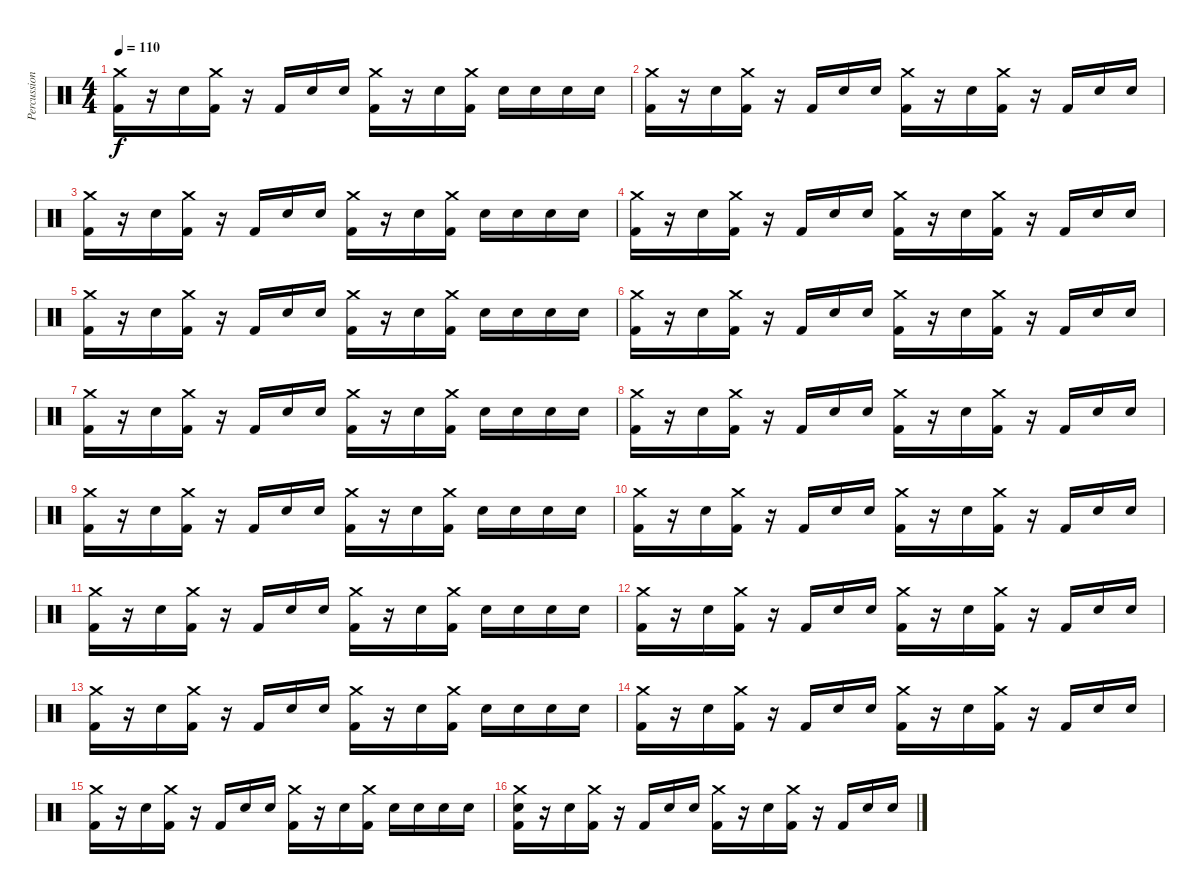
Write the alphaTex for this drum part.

\track ("Percussion" "Percussion") {instrument percussion}
\staff {score}
\articulation defaults
\ts (4 4)
\tempo 110
\clef neutral
\ks c
("Crash medium (hit)" "Kick (hit) 2").16{dy f} r.16 "Snare (hit) 2".16 ("Crash medium (hit)" "Kick (hit) 2").16 r.16 "Kick (hit) 2".16 "Snare (hit) 2".16 "Electric Snare (hit)".16 ("Crash medium (hit)" "Kick (hit) 2").16 r.16 "Snare (hit) 2".16 ("Crash medium (hit)" "Kick (hit) 2").16 "Snare (hit) 2".16 "Snare (hit) 2".16 "Snare (hit) 2".16 "Electric Snare (hit)".16 |
("Crash medium (hit)" "Kick (hit) 2").16 r.16 "Snare (hit) 2".16 ("Crash medium (hit)" "Kick (hit) 2").16 r.16 "Kick (hit) 2".16 "Snare (hit) 2".16 "Electric Snare (hit)".16 ("Crash medium (hit)" "Kick (hit) 2").16 r.16 "Snare (hit) 2".16 ("Crash medium (hit)" "Kick (hit) 2").16 r.16 "Kick (hit) 2".16 "Snare (hit) 2".16 "Electric Snare (hit)".16 |
("Crash medium (hit)" "Kick (hit) 2").16 r.16 "Snare (hit) 2".16 ("Crash medium (hit)" "Kick (hit) 2").16 r.16 "Kick (hit) 2".16 "Snare (hit) 2".16 "Electric Snare (hit)".16 ("Crash medium (hit)" "Kick (hit) 2").16 r.16 "Snare (hit) 2".16 ("Crash medium (hit)" "Kick (hit) 2").16 "Snare (hit) 2".16 "Snare (hit) 2".16 "Snare (hit) 2".16 "Electric Snare (hit)".16 |
("Crash medium (hit)" "Kick (hit) 2").16 r.16 "Snare (hit) 2".16 ("Crash medium (hit)" "Kick (hit) 2").16 r.16 "Kick (hit) 2".16 "Snare (hit) 2".16 "Electric Snare (hit)".16 ("Crash medium (hit)" "Kick (hit) 2").16 r.16 "Snare (hit) 2".16 ("Crash medium (hit)" "Kick (hit) 2").16 r.16 "Kick (hit) 2".16 "Snare (hit) 2".16 "Electric Snare (hit)".16 |
("Crash medium (hit)" "Kick (hit) 2").16 r.16 "Snare (hit) 2".16 ("Crash medium (hit)" "Kick (hit) 2").16 r.16 "Kick (hit) 2".16 "Snare (hit) 2".16 "Electric Snare (hit)".16 ("Crash medium (hit)" "Kick (hit) 2").16 r.16 "Snare (hit) 2".16 ("Crash medium (hit)" "Kick (hit) 2").16 "Snare (hit) 2".16 "Snare (hit) 2".16 "Snare (hit) 2".16 "Electric Snare (hit)".16 |
("Crash medium (hit)" "Kick (hit) 2").16 r.16 "Snare (hit) 2".16 ("Crash medium (hit)" "Kick (hit) 2").16 r.16 "Kick (hit) 2".16 "Snare (hit) 2".16 "Electric Snare (hit)".16 ("Crash medium (hit)" "Kick (hit) 2").16 r.16 "Snare (hit) 2".16 ("Crash medium (hit)" "Kick (hit) 2").16 r.16 "Kick (hit) 2".16 "Snare (hit) 2".16 "Electric Snare (hit)".16 |
("Crash medium (hit)" "Kick (hit) 2").16 r.16 "Snare (hit) 2".16 ("Crash medium (hit)" "Kick (hit) 2").16 r.16 "Kick (hit) 2".16 "Snare (hit) 2".16 "Electric Snare (hit)".16 ("Crash medium (hit)" "Kick (hit) 2").16 r.16 "Snare (hit) 2".16 ("Crash medium (hit)" "Kick (hit) 2").16 "Snare (hit) 2".16 "Snare (hit) 2".16 "Snare (hit) 2".16 "Electric Snare (hit)".16 |
("Crash medium (hit)" "Kick (hit) 2").16 r.16 "Snare (hit) 2".16 ("Crash medium (hit)" "Kick (hit) 2").16 r.16 "Kick (hit) 2".16 "Snare (hit) 2".16 "Electric Snare (hit)".16 ("Crash medium (hit)" "Kick (hit) 2").16 r.16 "Snare (hit) 2".16 ("Crash medium (hit)" "Kick (hit) 2").16 r.16 "Kick (hit) 2".16 "Snare (hit) 2".16 "Electric Snare (hit)".16 |
("Crash medium (hit)" "Kick (hit) 2").16 r.16 "Snare (hit) 2".16 ("Crash medium (hit)" "Kick (hit) 2").16 r.16 "Kick (hit) 2".16 "Snare (hit) 2".16 "Electric Snare (hit)".16 ("Crash medium (hit)" "Kick (hit) 2").16 r.16 "Snare (hit) 2".16 ("Crash medium (hit)" "Kick (hit) 2").16 "Snare (hit) 2".16 "Snare (hit) 2".16 "Snare (hit) 2".16 "Electric Snare (hit)".16 |
("Crash medium (hit)" "Kick (hit) 2").16 r.16 "Snare (hit) 2".16 ("Crash medium (hit)" "Kick (hit) 2").16 r.16 "Kick (hit) 2".16 "Snare (hit) 2".16 "Electric Snare (hit)".16 ("Crash medium (hit)" "Kick (hit) 2").16 r.16 "Snare (hit) 2".16 ("Crash medium (hit)" "Kick (hit) 2").16 r.16 "Kick (hit) 2".16 "Snare (hit) 2".16 "Electric Snare (hit)".16 |
("Crash medium (hit)" "Kick (hit) 2").16 r.16 "Snare (hit) 2".16 ("Crash medium (hit)" "Kick (hit) 2").16 r.16 "Kick (hit) 2".16 "Snare (hit) 2".16 "Electric Snare (hit)".16 ("Crash medium (hit)" "Kick (hit) 2").16 r.16 "Snare (hit) 2".16 ("Crash medium (hit)" "Kick (hit) 2").16 "Snare (hit) 2".16 "Snare (hit) 2".16 "Snare (hit) 2".16 "Electric Snare (hit)".16 |
("Crash medium (hit)" "Kick (hit) 2").16 r.16 "Snare (hit) 2".16 ("Crash medium (hit)" "Kick (hit) 2").16 r.16 "Kick (hit) 2".16 "Snare (hit) 2".16 "Electric Snare (hit)".16 ("Crash medium (hit)" "Kick (hit) 2").16 r.16 "Snare (hit) 2".16 ("Crash medium (hit)" "Kick (hit) 2").16 r.16 "Kick (hit) 2".16 "Snare (hit) 2".16 "Electric Snare (hit)".16 |
("Crash medium (hit)" "Kick (hit) 2").16 r.16 "Snare (hit) 2".16 ("Crash medium (hit)" "Kick (hit) 2").16 r.16 "Kick (hit) 2".16 "Snare (hit) 2".16 "Electric Snare (hit)".16 ("Crash medium (hit)" "Kick (hit) 2").16 r.16 "Snare (hit) 2".16 ("Crash medium (hit)" "Kick (hit) 2").16 "Snare (hit) 2".16 "Snare (hit) 2".16 "Snare (hit) 2".16 "Electric Snare (hit)".16 |
("Crash medium (hit)" "Kick (hit) 2").16 r.16 "Snare (hit) 2".16 ("Crash medium (hit)" "Kick (hit) 2").16 r.16 "Kick (hit) 2".16 "Snare (hit) 2".16 "Electric Snare (hit)".16 ("Crash medium (hit)" "Kick (hit) 2").16 r.16 "Snare (hit) 2".16 ("Crash medium (hit)" "Kick (hit) 2").16 r.16 "Kick (hit) 2".16 "Snare (hit) 2".16 "Electric Snare (hit)".16 |
("Crash medium (hit)" "Kick (hit) 2").16 r.16 "Snare (hit) 2".16 ("Crash medium (hit)" "Kick (hit) 2").16 r.16 "Kick (hit) 2".16 "Snare (hit) 2".16 "Electric Snare (hit)".16 ("Crash medium (hit)" "Kick (hit) 2").16 r.16 "Snare (hit) 2".16 ("Crash medium (hit)" "Kick (hit) 2").16 "Snare (hit) 2".16 "Snare (hit) 2".16 "Snare (hit) 2".16 "Electric Snare (hit)".16 |
("Crash medium (hit)" "Kick (hit) 2" "Electric Snare (hit)").16 r.16 "Snare (hit) 2".16 ("Crash medium (hit)" "Kick (hit) 2").16 r.16 "Kick (hit) 2".16 "Snare (hit) 2".16 "Electric Snare (hit)".16 ("Crash medium (hit)" "Kick (hit) 2").16 r.16 "Snare (hit) 2".16 ("Crash medium (hit)" "Kick (hit) 2").16 r.16 "Kick (hit) 2".16 "Snare (hit) 2".16 "Electric Snare (hit)".16
